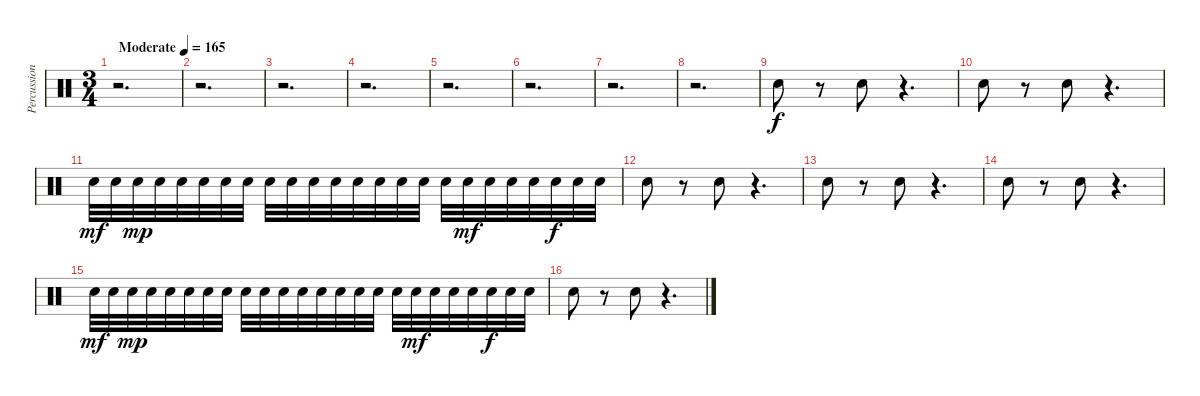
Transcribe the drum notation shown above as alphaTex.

\track ("Percussion" "Percussion") {instrument percussion}
\staff {score}
\articulation defaults
\ts (3 4)
\tempo (165 "Moderate")
\clef neutral
\ks c
r.2{d dy f} |
r.2{d} |
r.2{d} |
r.2{d} |
r.2{d} |
r.2{d} |
r.2{d} |
r.2{d} |
"Electric Snare (hit)".8 r.8 "Electric Snare (hit)".8 r.4{d} |
"Electric Snare (hit)".8 r.8 "Electric Snare (hit)".8 r.4{d} |
"Electric Snare (hit)".32{dy mf} "Electric Snare (hit)".32 "Electric Snare (hit)".32{dy mp} "Electric Snare (hit)".32 "Electric Snare (hit)".32 "Electric Snare (hit)".32 "Electric Snare (hit)".32 "Electric Snare (hit)".32 "Electric Snare (hit)".32 "Electric Snare (hit)".32 "Electric Snare (hit)".32 "Electric Snare (hit)".32 "Electric Snare (hit)".32 "Electric Snare (hit)".32 "Electric Snare (hit)".32 "Electric Snare (hit)".32 "Electric Snare (hit)".32 "Electric Snare (hit)".32{dy mf} "Electric Snare (hit)".32 "Electric Snare (hit)".32 "Electric Snare (hit)".32 "Electric Snare (hit)".32{dy f} "Electric Snare (hit)".32 "Electric Snare (hit)".32 |
"Electric Snare (hit)".8 r.8 "Electric Snare (hit)".8 r.4{d} |
"Electric Snare (hit)".8 r.8 "Electric Snare (hit)".8 r.4{d} |
"Electric Snare (hit)".8 r.8 "Electric Snare (hit)".8 r.4{d} |
"Electric Snare (hit)".32{dy mf} "Electric Snare (hit)".32 "Electric Snare (hit)".32{dy mp} "Electric Snare (hit)".32 "Electric Snare (hit)".32 "Electric Snare (hit)".32 "Electric Snare (hit)".32 "Electric Snare (hit)".32 "Electric Snare (hit)".32 "Electric Snare (hit)".32 "Electric Snare (hit)".32 "Electric Snare (hit)".32 "Electric Snare (hit)".32 "Electric Snare (hit)".32 "Electric Snare (hit)".32 "Electric Snare (hit)".32 "Electric Snare (hit)".32 "Electric Snare (hit)".32{dy mf} "Electric Snare (hit)".32 "Electric Snare (hit)".32 "Electric Snare (hit)".32 "Electric Snare (hit)".32{dy f} "Electric Snare (hit)".32 "Electric Snare (hit)".32 |
"Electric Snare (hit)".8 r.8 "Electric Snare (hit)".8 r.4{d}
